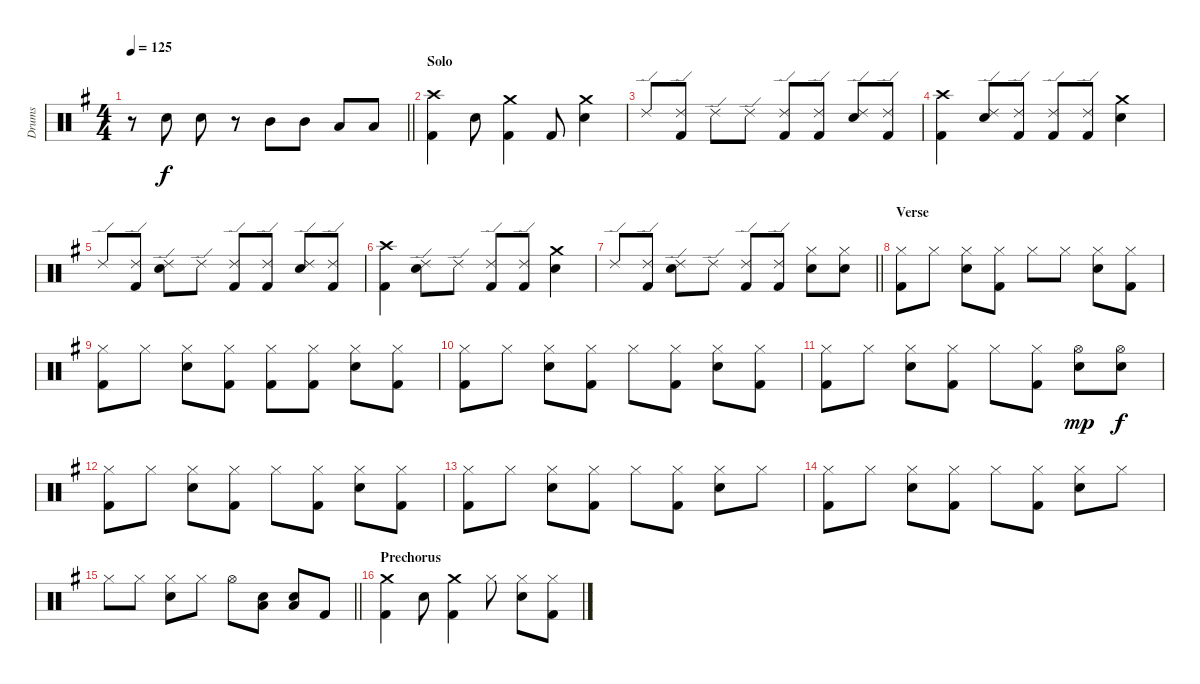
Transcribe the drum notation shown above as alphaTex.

\track ("Drums" "Drums") {instrument percussion}
\staff {score}
\articulation defaults
\ts (4 4)
\tempo 125
\clef neutral
\barLineRight lightlight
\ks eminor
r.8{dy f} "Electric Snare (hit)".8 "Electric Snare (hit)".8 r.8 "Mid Tom (hit)".8 "Mid Tom (hit)".8 "Low Tom (hit)".8 "Low Tom (hit)".8 |
\section ("" "Solo")
("Crash high (hit)" "Kick (hit) 2").4 "Electric Snare (hit)".8 ("Crash medium (hit)" "Kick (hit) 2").4 "Kick (hit) 2".8 ("Crash medium (hit)" "Electric Snare (hit)").4 |
"Ride (edge) 2".8 ("Ride (edge) 2" "Kick (hit) 2").8 "Ride (edge) 2".8 "Ride (edge) 2".8 ("Ride (edge) 2" "Kick (hit) 2").8 ("Ride (edge) 2" "Kick (hit) 2").8 ("Ride (edge) 2" "Electric Snare (hit)").8 ("Ride (edge) 2" "Kick (hit) 2").8 |
("Crash high (hit)" "Kick (hit) 2").4 ("Ride (edge) 2" "Electric Snare (hit)").8 ("Ride (edge) 2" "Kick (hit) 2").8 ("Ride (edge) 2" "Kick (hit) 2").8 ("Ride (edge) 2" "Kick (hit) 2").8 ("Crash medium (hit)" "Electric Snare (hit)").4 |
"Ride (edge) 2".8 ("Ride (edge) 2" "Kick (hit) 2").8 ("Ride (edge) 2" "Electric Snare (hit)").8 "Ride (edge) 2".8 ("Ride (edge) 2" "Kick (hit) 2").8 ("Ride (edge) 2" "Kick (hit) 2").8 ("Ride (edge) 2" "Electric Snare (hit)").8 ("Ride (edge) 2" "Kick (hit) 2").8 |
("Crash high (hit)" "Kick (hit) 2").4 ("Ride (edge) 2" "Electric Snare (hit)").8 "Ride (edge) 2".8 ("Ride (edge) 2" "Kick (hit) 2").8 ("Ride (edge) 2" "Kick (hit) 2").8 ("Crash medium (hit)" "Electric Snare (hit)").4 |
\barLineRight lightlight "Ride (edge) 2".8
("Ride (edge) 2" "Kick (hit) 2").8 ("Ride (edge) 2" "Electric Snare (hit)").8 "Ride (edge) 2".8 ("Ride (edge) 2" "Kick (hit) 2").8 ("Ride (edge) 2" "Kick (hit) 2").8 ("Hi-Hat (closed)" "Electric Snare (hit)").8 ("Hi-Hat (closed)" "Electric Snare (hit)").8 |
\section ("" "Verse")
("Hi-Hat (closed)" "Kick (hit) 2").8 "Hi-Hat (closed)".8 ("Hi-Hat (closed)" "Electric Snare (hit)").8 ("Hi-Hat (closed)" "Kick (hit) 2").8 "Hi-Hat (closed)".8 "Hi-Hat (closed)".8 ("Hi-Hat (closed)" "Electric Snare (hit)").8 ("Hi-Hat (closed)" "Kick (hit) 2").8 |
("Hi-Hat (closed)" "Kick (hit) 2").8 "Hi-Hat (closed)".8 ("Hi-Hat (closed)" "Electric Snare (hit)").8 ("Hi-Hat (closed)" "Kick (hit) 2").8 ("Hi-Hat (closed)" "Kick (hit) 2").8 ("Hi-Hat (closed)" "Kick (hit) 2").8 ("Hi-Hat (closed)" "Electric Snare (hit)").8 ("Hi-Hat (closed)" "Kick (hit) 2").8 |
("Hi-Hat (closed)" "Kick (hit) 2").8 "Hi-Hat (closed)".8 ("Hi-Hat (closed)" "Electric Snare (hit)").8 ("Hi-Hat (closed)" "Kick (hit) 2").8 "Hi-Hat (closed)".8 ("Hi-Hat (closed)" "Kick (hit) 2").8 ("Hi-Hat (closed)" "Electric Snare (hit)").8 ("Hi-Hat (closed)" "Kick (hit) 2").8 |
("Hi-Hat (closed)" "Kick (hit) 2").8 "Hi-Hat (closed)".8 ("Hi-Hat (closed)" "Electric Snare (hit)").8 ("Hi-Hat (closed)" "Kick (hit) 2").8 "Hi-Hat (closed)".8 ("Hi-Hat (closed)" "Kick (hit) 2").8 ("Hi-Hat (open)" "Electric Snare (hit)").8{dy mp} ("Hi-Hat (open)" "Electric Snare (hit)").8{dy f} |
("Hi-Hat (closed)" "Kick (hit) 2").8 "Hi-Hat (closed)".8 ("Hi-Hat (closed)" "Electric Snare (hit)").8 ("Hi-Hat (closed)" "Kick (hit) 2").8 "Hi-Hat (closed)".8 ("Hi-Hat (closed)" "Kick (hit) 2").8 ("Hi-Hat (closed)" "Electric Snare (hit)").8 ("Hi-Hat (closed)" "Kick (hit) 2").8 |
("Hi-Hat (closed)" "Kick (hit) 2").8 "Hi-Hat (closed)".8 ("Hi-Hat (closed)" "Electric Snare (hit)").8 ("Hi-Hat (closed)" "Kick (hit) 2").8 "Hi-Hat (closed)".8 ("Hi-Hat (closed)" "Kick (hit) 2").8 ("Hi-Hat (closed)" "Electric Snare (hit)").8 "Hi-Hat (closed)".8 |
("Hi-Hat (closed)" "Kick (hit) 2").8 "Hi-Hat (closed)".8 ("Hi-Hat (closed)" "Electric Snare (hit)").8 ("Hi-Hat (closed)" "Kick (hit) 2").8 "Hi-Hat (closed)".8 ("Hi-Hat (closed)" "Kick (hit) 2").8 ("Hi-Hat (closed)" "Electric Snare (hit)").8 "Hi-Hat (closed)".8 |
\barLineRight lightlight "Hi-Hat (closed)".8 "Hi-Hat (closed)".8
("Hi-Hat (closed)" "Electric Snare (hit)").8 "Hi-Hat (closed)".8 "Hi-Hat (open)".8 ("Electric Snare (hit)" "Low Tom (hit)").8 ("Electric Snare (hit)" "Low Tom (hit)").8 "Kick (hit) 2".8 |
\section ("" "Prechorus")
("Crash medium (hit)" "Kick (hit) 2").4 "Electric Snare (hit)".8 ("Crash medium (hit)" "Kick (hit) 2").4 "Hi-Hat (closed)".8 ("Hi-Hat (closed)" "Electric Snare (hit)").8 ("Hi-Hat (closed)" "Kick (hit) 2").8
